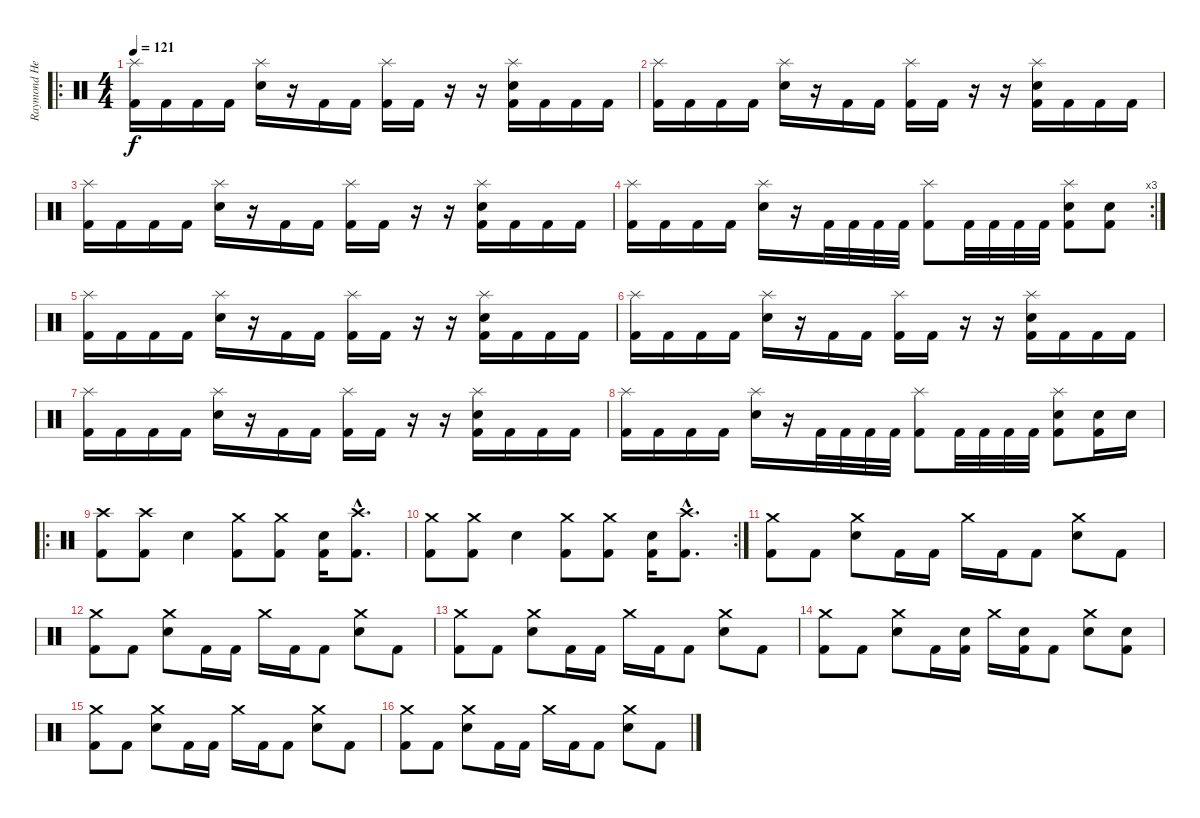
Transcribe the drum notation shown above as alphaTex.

\track ("Raymond Herrerra" "Raymond He") {instrument percussion}
\staff {score}
\articulation defaults
\ro
\ts (4 4)
\tempo 121
\clef neutral
\ks c
("Splash (hit)" "Kick (hit) 2").16{dy f} "Kick (hit) 2".16 "Kick (hit) 2".16 "Kick (hit) 2".16 ("Splash (hit)" "Electric Snare (hit)").16 r.16 "Kick (hit) 2".16 "Kick (hit) 2".16 ("Splash (hit)" "Kick (hit) 2").16 "Kick (hit) 2".16 r.16 r.16 ("Splash (hit)" "Electric Snare (hit)" "Kick (hit) 2").16 "Kick (hit) 2".16 "Kick (hit) 2".16 "Kick (hit) 2".16 |
("Splash (hit)" "Kick (hit) 2").16 "Kick (hit) 2".16 "Kick (hit) 2".16 "Kick (hit) 2".16 ("Splash (hit)" "Electric Snare (hit)").16 r.16 "Kick (hit) 2".16 "Kick (hit) 2".16 ("Splash (hit)" "Kick (hit) 2").16 "Kick (hit) 2".16 r.16 r.16 ("Splash (hit)" "Electric Snare (hit)" "Kick (hit) 2").16 "Kick (hit) 2".16 "Kick (hit) 2".16 "Kick (hit) 2".16 |
("Splash (hit)" "Kick (hit) 2").16 "Kick (hit) 2".16 "Kick (hit) 2".16 "Kick (hit) 2".16 ("Splash (hit)" "Electric Snare (hit)").16 r.16 "Kick (hit) 2".16 "Kick (hit) 2".16 ("Splash (hit)" "Kick (hit) 2").16 "Kick (hit) 2".16 r.16 r.16 ("Splash (hit)" "Electric Snare (hit)" "Kick (hit) 2").16 "Kick (hit) 2".16 "Kick (hit) 2".16 "Kick (hit) 2".16 |
\rc 3
("Splash (hit)" "Kick (hit) 2").16 "Kick (hit) 2".16 "Kick (hit) 2".16 "Kick (hit) 2".16 ("Splash (hit)" "Electric Snare (hit)").16 r.16 "Kick (hit) 2".32 "Kick (hit) 2".32 "Kick (hit) 2".32 "Kick (hit) 2".32 ("Splash (hit)" "Kick (hit) 2").8 "Kick (hit) 2".32 "Kick (hit) 2".32 "Kick (hit) 2".32 "Kick (hit) 2".32 ("Splash (hit)" "Electric Snare (hit)" "Kick (hit) 2").8 ("Electric Snare (hit)" "Kick (hit) 2").8 |
("Splash (hit)" "Kick (hit) 2").16 "Kick (hit) 2".16 "Kick (hit) 2".16 "Kick (hit) 2".16 ("Splash (hit)" "Electric Snare (hit)").16 r.16 "Kick (hit) 2".16 "Kick (hit) 2".16 ("Splash (hit)" "Kick (hit) 2").16 "Kick (hit) 2".16 r.16 r.16 ("Splash (hit)" "Electric Snare (hit)" "Kick (hit) 2").16 "Kick (hit) 2".16 "Kick (hit) 2".16 "Kick (hit) 2".16 |
("Splash (hit)" "Kick (hit) 2").16 "Kick (hit) 2".16 "Kick (hit) 2".16 "Kick (hit) 2".16 ("Splash (hit)" "Electric Snare (hit)").16 r.16 "Kick (hit) 2".16 "Kick (hit) 2".16 ("Splash (hit)" "Kick (hit) 2").16 "Kick (hit) 2".16 r.16 r.16 ("Splash (hit)" "Electric Snare (hit)" "Kick (hit) 2").16 "Kick (hit) 2".16 "Kick (hit) 2".16 "Kick (hit) 2".16 |
("Splash (hit)" "Kick (hit) 2").16 "Kick (hit) 2".16 "Kick (hit) 2".16 "Kick (hit) 2".16 ("Splash (hit)" "Electric Snare (hit)").16 r.16 "Kick (hit) 2".16 "Kick (hit) 2".16 ("Splash (hit)" "Kick (hit) 2").16 "Kick (hit) 2".16 r.16 r.16 ("Splash (hit)" "Electric Snare (hit)" "Kick (hit) 2").16 "Kick (hit) 2".16 "Kick (hit) 2".16 "Kick (hit) 2".16 |
("Splash (hit)" "Kick (hit) 2").16 "Kick (hit) 2".16 "Kick (hit) 2".16 "Kick (hit) 2".16 ("Splash (hit)" "Electric Snare (hit)").16 r.16 "Kick (hit) 2".32 "Kick (hit) 2".32 "Kick (hit) 2".32 "Kick (hit) 2".32 ("Splash (hit)" "Kick (hit) 2").8 "Kick (hit) 2".32 "Kick (hit) 2".32 "Kick (hit) 2".32 "Kick (hit) 2".32 ("Splash (hit)" "Electric Snare (hit)" "Kick (hit) 2").8 ("Electric Snare (hit)" "Kick (hit) 2").16 "Electric Snare (hit)".16 |
\ro
("Crash high (hit)" "Kick (hit) 2").8 ("Crash high (hit)" "Kick (hit) 2").8 "Electric Snare (hit)".4 ("Crash medium (hit)" "Kick (hit) 2").8 ("Crash medium (hit)" "Kick (hit) 2").8 ("Electric Snare (hit)" "Kick (hit) 2").16 ("Crash high (hit)"{hac} "Kick (hit) 2"{hac}).8{d} |
\rc 2
("Crash medium (hit)" "Kick (hit) 2").8 ("Crash medium (hit)" "Kick (hit) 2").8 "Electric Snare (hit)".4 ("Crash medium (hit)" "Kick (hit) 2").8 ("Crash medium (hit)" "Kick (hit) 2").8 ("Electric Snare (hit)" "Kick (hit) 2").16 ("Crash high (hit)"{hac} "Kick (hit) 2"{hac}).8{d} |
("Crash medium (hit)" "Kick (hit) 2").8 "Kick (hit) 2".8 ("Crash medium (hit)" "Electric Snare (hit)").8 "Kick (hit) 2".16 "Kick (hit) 2".16 "Crash medium (hit)".16 "Kick (hit) 2".16 "Kick (hit) 2".8 ("Crash medium (hit)" "Electric Snare (hit)").8 "Kick (hit) 2".8 |
("Crash medium (hit)" "Kick (hit) 2").8 "Kick (hit) 2".8 ("Crash medium (hit)" "Electric Snare (hit)").8 "Kick (hit) 2".16 "Kick (hit) 2".16 "Crash medium (hit)".16 "Kick (hit) 2".16 "Kick (hit) 2".8 ("Crash medium (hit)" "Electric Snare (hit)").8 "Kick (hit) 2".8 |
("Crash medium (hit)" "Kick (hit) 2").8 "Kick (hit) 2".8 ("Crash medium (hit)" "Electric Snare (hit)").8 "Kick (hit) 2".16 "Kick (hit) 2".16 "Crash medium (hit)".16 "Kick (hit) 2".16 "Kick (hit) 2".8 ("Crash medium (hit)" "Electric Snare (hit)").8 "Kick (hit) 2".8 |
("Crash medium (hit)" "Kick (hit) 2").8 "Kick (hit) 2".8 ("Crash medium (hit)" "Electric Snare (hit)").8 "Kick (hit) 2".16 ("Electric Snare (hit)" "Kick (hit) 2").16 "Crash medium (hit)".16 ("Electric Snare (hit)" "Kick (hit) 2").16 "Kick (hit) 2".8 ("Crash medium (hit)" "Electric Snare (hit)").8 ("Electric Snare (hit)" "Kick (hit) 2").8 |
("Crash medium (hit)" "Kick (hit) 2").8 "Kick (hit) 2".8 ("Crash medium (hit)" "Electric Snare (hit)").8 "Kick (hit) 2".16 "Kick (hit) 2".16 "Crash medium (hit)".16 "Kick (hit) 2".16 "Kick (hit) 2".8 ("Crash medium (hit)" "Electric Snare (hit)").8 "Kick (hit) 2".8 |
("Crash medium (hit)" "Kick (hit) 2").8 "Kick (hit) 2".8 ("Crash medium (hit)" "Electric Snare (hit)").8 "Kick (hit) 2".16 "Kick (hit) 2".16 "Crash medium (hit)".16 "Kick (hit) 2".16 "Kick (hit) 2".8 ("Crash medium (hit)" "Electric Snare (hit)").8 "Kick (hit) 2".8
